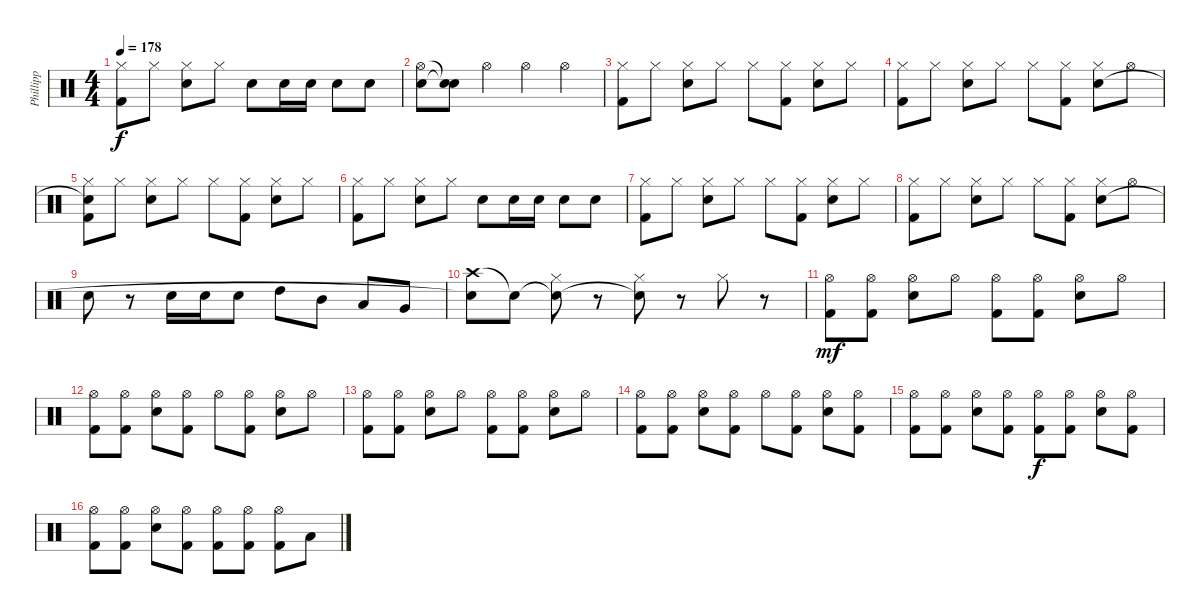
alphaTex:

\track ("Phillipp" "Phillipp") {instrument percussion}
\staff {score}
\articulation defaults
\ts (4 4)
\tempo 178
\clef neutral
\ks c
("Hi-Hat (closed)" "Kick (hit) 2").8{dy f} "Hi-Hat (closed)".8 ("Hi-Hat (closed)" "Electric Snare (hit)").8 "Hi-Hat (closed)".8 "Electric Snare (hit)".8 "Electric Snare (hit)".16 "Electric Snare (hit)".16 "Electric Snare (hit)".8 "Electric Snare (hit)".8 |
("Electric Snare (hit)" "Hi-Hat (open)").8 ("Snare (hit)"{t} "Snare (hit)"{t}).8 "Hi-Hat (open)".4 "Hi-Hat (open)".4 "Hi-Hat (open)".4 |
("Hi-Hat (closed)" "Kick (hit) 2").8 "Hi-Hat (closed)".8 ("Hi-Hat (closed)" "Electric Snare (hit)").8 "Hi-Hat (closed)".8 "Hi-Hat (closed)".8 ("Hi-Hat (closed)" "Kick (hit) 2").8 ("Hi-Hat (closed)" "Electric Snare (hit)").8 "Hi-Hat (closed)".8 |
("Hi-Hat (closed)" "Kick (hit) 2").8 "Hi-Hat (closed)".8 ("Hi-Hat (closed)" "Electric Snare (hit)").8 "Hi-Hat (closed)".8 "Hi-Hat (closed)".8 ("Hi-Hat (closed)" "Kick (hit) 2").8 ("Hi-Hat (closed)" "Electric Snare (hit)").8 "Hi-Hat (open)".8 |
("Hi-Hat (closed)" "Snare (hit)"{t} "Kick (hit) 2").8 "Hi-Hat (closed)".8 ("Hi-Hat (closed)" "Electric Snare (hit)").8 "Hi-Hat (closed)".8 "Hi-Hat (closed)".8 ("Hi-Hat (closed)" "Kick (hit) 2").8 ("Hi-Hat (closed)" "Electric Snare (hit)").8 "Hi-Hat (closed)".8 |
("Hi-Hat (closed)" "Kick (hit) 2").8 "Hi-Hat (closed)".8 ("Hi-Hat (closed)" "Electric Snare (hit)").8 "Hi-Hat (closed)".8 "Electric Snare (hit)".8 "Electric Snare (hit)".16 "Electric Snare (hit)".16 "Electric Snare (hit)".8 "Electric Snare (hit)".8 |
("Hi-Hat (closed)" "Kick (hit) 2").8 "Hi-Hat (closed)".8 ("Hi-Hat (closed)" "Electric Snare (hit)").8 "Hi-Hat (closed)".8 "Hi-Hat (closed)".8 ("Hi-Hat (closed)" "Kick (hit) 2").8 ("Hi-Hat (closed)" "Electric Snare (hit)").8 "Hi-Hat (closed)".8 |
("Hi-Hat (closed)" "Kick (hit) 2").8 "Hi-Hat (closed)".8 ("Hi-Hat (closed)" "Electric Snare (hit)").8 "Hi-Hat (closed)".8 "Hi-Hat (closed)".8 ("Hi-Hat (closed)" "Kick (hit) 2").8 ("Hi-Hat (closed)" "Electric Snare (hit)").8 "Hi-Hat (open)".8 |
"Electric Snare (hit)".8 r.8 "Electric Snare (hit)".16 "Electric Snare (hit)".16 "Electric Snare (hit)".8 "High Tom (hit)".8 "Mid Tom (hit)".8 "Low Tom (hit)".8 "Very Low Tom (hit)".8 |
("Crash high (hit)" "Snare (hit)"{t}).8 "Snare (hit)"{t}.8 ("Snare (hit)"{t} "Hi-Hat (closed)").8 r.8 ("Snare (hit)"{t} "Hi-Hat (closed)").8 r.8 "Hi-Hat (closed)".8 r.8 |
("Hi-Hat (open)" "Kick (hit) 2").8{dy mf} ("Hi-Hat (open)" "Kick (hit) 2").8 ("Hi-Hat (open)" "Electric Snare (hit)").8 "Hi-Hat (open)".8 ("Hi-Hat (open)" "Kick (hit) 2").8 ("Hi-Hat (open)" "Kick (hit) 2").8 ("Hi-Hat (open)" "Electric Snare (hit)").8 "Hi-Hat (open)".8 |
("Hi-Hat (open)" "Kick (hit) 2").8 ("Hi-Hat (open)" "Kick (hit) 2").8 ("Hi-Hat (open)" "Electric Snare (hit)").8 ("Hi-Hat (open)" "Kick (hit) 2").8 "Hi-Hat (open)".8 ("Hi-Hat (open)" "Kick (hit) 2").8 ("Hi-Hat (open)" "Electric Snare (hit)").8 "Hi-Hat (open)".8 |
("Hi-Hat (open)" "Kick (hit) 2").8 ("Hi-Hat (open)" "Kick (hit) 2").8 ("Hi-Hat (open)" "Electric Snare (hit)").8 "Hi-Hat (open)".8 ("Hi-Hat (open)" "Kick (hit) 2").8 ("Hi-Hat (open)" "Kick (hit) 2").8 ("Hi-Hat (open)" "Electric Snare (hit)").8 "Hi-Hat (open)".8 |
("Hi-Hat (open)" "Kick (hit) 2").8 ("Hi-Hat (open)" "Kick (hit) 2").8 ("Hi-Hat (open)" "Electric Snare (hit)").8 ("Hi-Hat (open)" "Kick (hit) 2").8 "Hi-Hat (open)".8 ("Hi-Hat (open)" "Kick (hit) 2").8 ("Hi-Hat (open)" "Electric Snare (hit)").8 ("Hi-Hat (open)" "Kick (hit) 2").8 |
("Hi-Hat (open)" "Kick (hit) 2").8 ("Hi-Hat (open)" "Kick (hit) 2").8 ("Hi-Hat (open)" "Electric Snare (hit)").8 ("Hi-Hat (open)" "Kick (hit) 2").8 ("Hi-Hat (open)" "Kick (hit) 2").8{dy f} ("Hi-Hat (open)" "Kick (hit) 2").8 ("Hi-Hat (open)" "Electric Snare (hit)").8 ("Hi-Hat (open)" "Kick (hit) 2").8 |
("Hi-Hat (open)" "Kick (hit) 2").8 ("Hi-Hat (open)" "Kick (hit) 2").8 ("Hi-Hat (open)" "Electric Snare (hit)").8 ("Hi-Hat (open)" "Kick (hit) 2").8 ("Hi-Hat (open)" "Kick (hit) 2").8 ("Hi-Hat (open)" "Kick (hit) 2").8 ("Hi-Hat (open)" "Kick (hit) 2").8 "Low Tom (hit)".8
